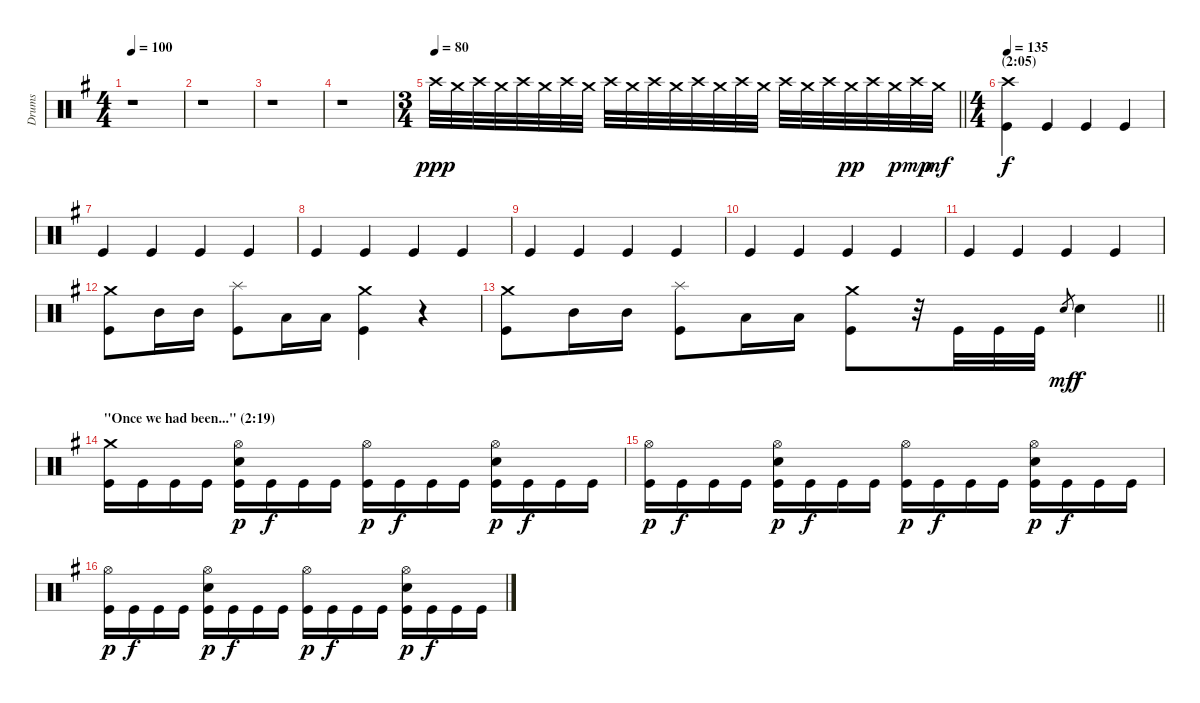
\track ("Drums" "Drums") {instrument percussion}
\staff {score}
\articulation defaults
\ts (4 4)
\tempo 100
\clef neutral
\ks eminor
r.1{dy p} |
r.1 |
r.1 |
r.1 |
\ts (3 4)
\tempo 80
\barLineRight lightlight "Crash high (hit)".32{dy ppp} "Crash medium (hit)".32 "Crash high (hit)".32 "Crash medium (hit)".32 "Crash high (hit)".32 "Crash medium (hit)".32 "Crash high (hit)".32 "Crash medium (hit)".32 "Crash high (hit)".32 "Crash medium (hit)".32 "Crash high (hit)".32 "Crash medium (hit)".32 "Crash high (hit)".32 "Crash medium (hit)".32 "Crash high (hit)".32 "Crash medium (hit)".32 "Crash high (hit)".32 "Crash medium (hit)".32 "Crash high (hit)".32 "Crash medium (hit)".32{dy pp} "Crash high (hit)".32 "Crash medium (hit)".32{dy p} "Crash high (hit)".32{dy mp} "Crash medium (hit)".32{dy mf}
|
\ts (4 4)
\section ("" "(2:05)")
\tempo 135
("Crash high (hit)" "Kick (hit)").4{dy f} "Kick (hit)".4 "Kick (hit)".4 "Kick (hit)".4 |
"Kick (hit)".4 "Kick (hit)".4 "Kick (hit)".4 "Kick (hit)".4 |
"Kick (hit)".4 "Kick (hit)".4 "Kick (hit)".4 "Kick (hit)".4 |
"Kick (hit)".4 "Kick (hit)".4 "Kick (hit)".4 "Kick (hit)".4 |
"Kick (hit)".4 "Kick (hit)".4 "Kick (hit)".4 "Kick (hit)".4 |
"Kick (hit)".4 "Kick (hit)".4 "Kick (hit)".4 "Kick (hit)".4 |
("Crash medium (hit)" "Kick (hit)").8 "Mid Tom (hit)".16 "Mid Tom (hit)".16 ("Splash (hit)" "Kick (hit)").8 "Low Tom (hit)".16 "Low Tom (hit)".16 ("Crash medium (hit)" "Kick (hit)").4 r.4 |
\barLineRight lightlight
("Crash medium (hit)" "Kick (hit)").8 "Mid Tom (hit)".16 "Mid Tom (hit)".16 ("Splash (hit)" "Kick (hit)").8 "Low Tom (hit)".16 "Low Tom (hit)".16 ("Crash medium (hit)" "Kick (hit)").8 r.32 "Kick (hit)".32 "Kick (hit)".32 "Kick (hit)".32 "Snare (hit) 2".8{gr dy mf} "Snare (hit) 2".4{dy f} |
\section ("" "\"Once we had been...\" (2:19)")
("Crash medium (hit)" "Kick (hit)").16 "Kick (hit)".16 "Kick (hit)".16 "Kick (hit)".16 ("Hi-Hat (open)" "Snare (hit) 2" "Kick (hit)").16{dy p} "Kick (hit)".16{dy f} "Kick (hit)".16 "Kick (hit)".16 ("Hi-Hat (open)" "Kick (hit)").16{dy p} "Kick (hit)".16{dy f} "Kick (hit)".16 "Kick (hit)".16 ("Hi-Hat (open)" "Snare (hit) 2" "Kick (hit)").16{dy p} "Kick (hit)".16{dy f} "Kick (hit)".16 "Kick (hit)".16 |
("Hi-Hat (open)" "Kick (hit)").16{dy p} "Kick (hit)".16{dy f} "Kick (hit)".16 "Kick (hit)".16 ("Hi-Hat (open)" "Snare (hit) 2" "Kick (hit)").16{dy p} "Kick (hit)".16{dy f} "Kick (hit)".16 "Kick (hit)".16 ("Hi-Hat (open)" "Kick (hit)").16{dy p} "Kick (hit)".16{dy f} "Kick (hit)".16 "Kick (hit)".16 ("Hi-Hat (open)" "Snare (hit) 2" "Kick (hit)").16{dy p} "Kick (hit)".16{dy f} "Kick (hit)".16 "Kick (hit)".16 |
("Hi-Hat (open)" "Kick (hit)").16{dy p} "Kick (hit)".16{dy f} "Kick (hit)".16 "Kick (hit)".16 ("Hi-Hat (open)" "Snare (hit) 2" "Kick (hit)").16{dy p} "Kick (hit)".16{dy f} "Kick (hit)".16 "Kick (hit)".16 ("Hi-Hat (open)" "Kick (hit)").16{dy p} "Kick (hit)".16{dy f} "Kick (hit)".16 "Kick (hit)".16 ("Hi-Hat (open)" "Snare (hit) 2" "Kick (hit)").16{dy p} "Kick (hit)".16{dy f} "Kick (hit)".16 "Kick (hit)".16
